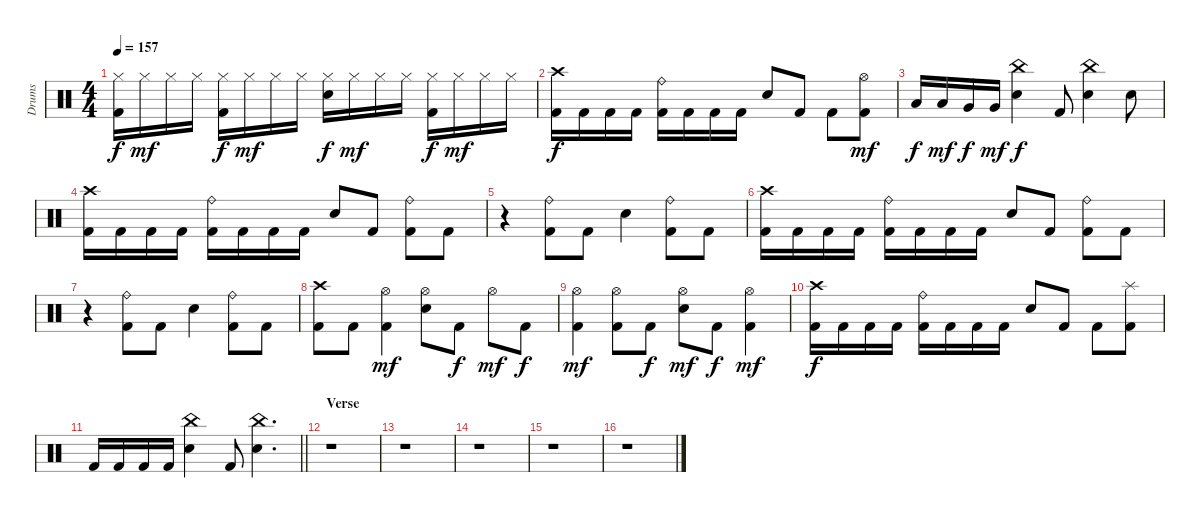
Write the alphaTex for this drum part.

\track ("Drums" "Drums") {instrument percussion}
\staff {score}
\articulation defaults
\ts (4 4)
\tempo 157
\clef neutral
\ks c
("Kick (hit) 2" "Hi-Hat (closed)").16{dy f} "Hi-Hat (closed)".16{dy mf} "Hi-Hat (closed)".16 "Hi-Hat (closed)".16 ("Kick (hit) 2" "Hi-Hat (closed)").16{dy f} "Hi-Hat (closed)".16{dy mf} "Hi-Hat (closed)".16 "Hi-Hat (closed)".16 ("Hi-Hat (closed)" "Electric Snare (hit)").16{dy f} "Hi-Hat (closed)".16{dy mf} "Hi-Hat (closed)".16 "Hi-Hat (closed)".16 ("Kick (hit) 2" "Hi-Hat (closed)").16{dy f} "Hi-Hat (closed)".16{dy mf} "Hi-Hat (closed)".16 "Hi-Hat (closed)".16 |
("Kick (hit) 2" "Crash high (hit)").16{dy f} "Kick (hit) 2".16 "Kick (hit) 2".16 "Kick (hit) 2".16 ("Kick (hit) 2" "Ride (bell)").16 "Kick (hit) 2".16 "Kick (hit) 2".16 "Kick (hit) 2".16 "Electric Snare (hit)".8 "Kick (hit) 2".8 "Kick (hit) 2".8 ("Kick (hit) 2" "Hi-Hat (open)").8{dy mf} |
"Low Tom (hit)".16{dy f} "Low Tom (hit)".16{dy mf} "Very Low Tom (hit)".16{dy f} "Very Low Tom (hit)".16{dy mf} ("China (hit)" "Electric Snare (hit)").4{dy f} "Kick (hit) 2".8 ("China (hit)" "Electric Snare (hit)").4 "Electric Snare (hit)".8 |
("Kick (hit) 2" "Crash high (hit)").16 "Kick (hit) 2".16 "Kick (hit) 2".16 "Kick (hit) 2".16 ("Kick (hit) 2" "Ride (bell)").16 "Kick (hit) 2".16 "Kick (hit) 2".16 "Kick (hit) 2".16 "Electric Snare (hit)".8 "Kick (hit) 2".8 ("Kick (hit) 2" "Ride (bell)").8 "Kick (hit) 2".8 |
r.4 ("Kick (hit) 2" "Ride (bell)").8 "Kick (hit) 2".8 "Electric Snare (hit)".4 ("Kick (hit) 2" "Ride (bell)").8 "Kick (hit) 2".8 |
("Kick (hit) 2" "Crash high (hit)").16 "Kick (hit) 2".16 "Kick (hit) 2".16 "Kick (hit) 2".16 ("Kick (hit) 2" "Ride (bell)").16 "Kick (hit) 2".16 "Kick (hit) 2".16 "Kick (hit) 2".16 "Electric Snare (hit)".8 "Kick (hit) 2".8 ("Kick (hit) 2" "Ride (bell)").8 "Kick (hit) 2".8 |
r.4 ("Kick (hit) 2" "Ride (bell)").8 "Kick (hit) 2".8 "Electric Snare (hit)".4 ("Kick (hit) 2" "Ride (bell)").8 "Kick (hit) 2".8 |
("Kick (hit) 2" "Crash high (hit)").8 "Kick (hit) 2".8 ("Kick (hit) 2" "Hi-Hat (open)").4{dy mf} ("Hi-Hat (open)" "Electric Snare (hit)").8 "Kick (hit) 2".8{dy f} "Hi-Hat (open)".8{dy mf} "Kick (hit) 2".8{dy f} |
("Kick (hit) 2" "Hi-Hat (open)").4{dy mf} ("Kick (hit) 2" "Hi-Hat (open)").8 "Kick (hit) 2".8{dy f} ("Hi-Hat (open)" "Electric Snare (hit)").8{dy mf} "Kick (hit) 2".8{dy f} ("Kick (hit) 2" "Hi-Hat (open)").4{dy mf} |
("Kick (hit) 2" "Crash high (hit)").16{dy f} "Kick (hit) 2".16 "Kick (hit) 2".16 "Kick (hit) 2".16 ("Kick (hit) 2" "Ride (bell)").16 "Kick (hit) 2".16 "Kick (hit) 2".16 "Kick (hit) 2".16 "Electric Snare (hit)".8 "Kick (hit) 2".8 "Kick (hit) 2".8 ("Kick (hit) 2" "Splash (hit)").8 |
\barLineRight lightlight "Kick (hit) 2".16 "Kick (hit) 2".16 "Kick (hit) 2".16 "Kick (hit) 2".16
("China (hit)" "Electric Snare (hit)").4 "Kick (hit) 2".8 ("China (hit)" "Electric Snare (hit)").4{d} |
\section ("" "Verse")
r.1 |
r.1 |
r.1 |
r.1 |
r.1
